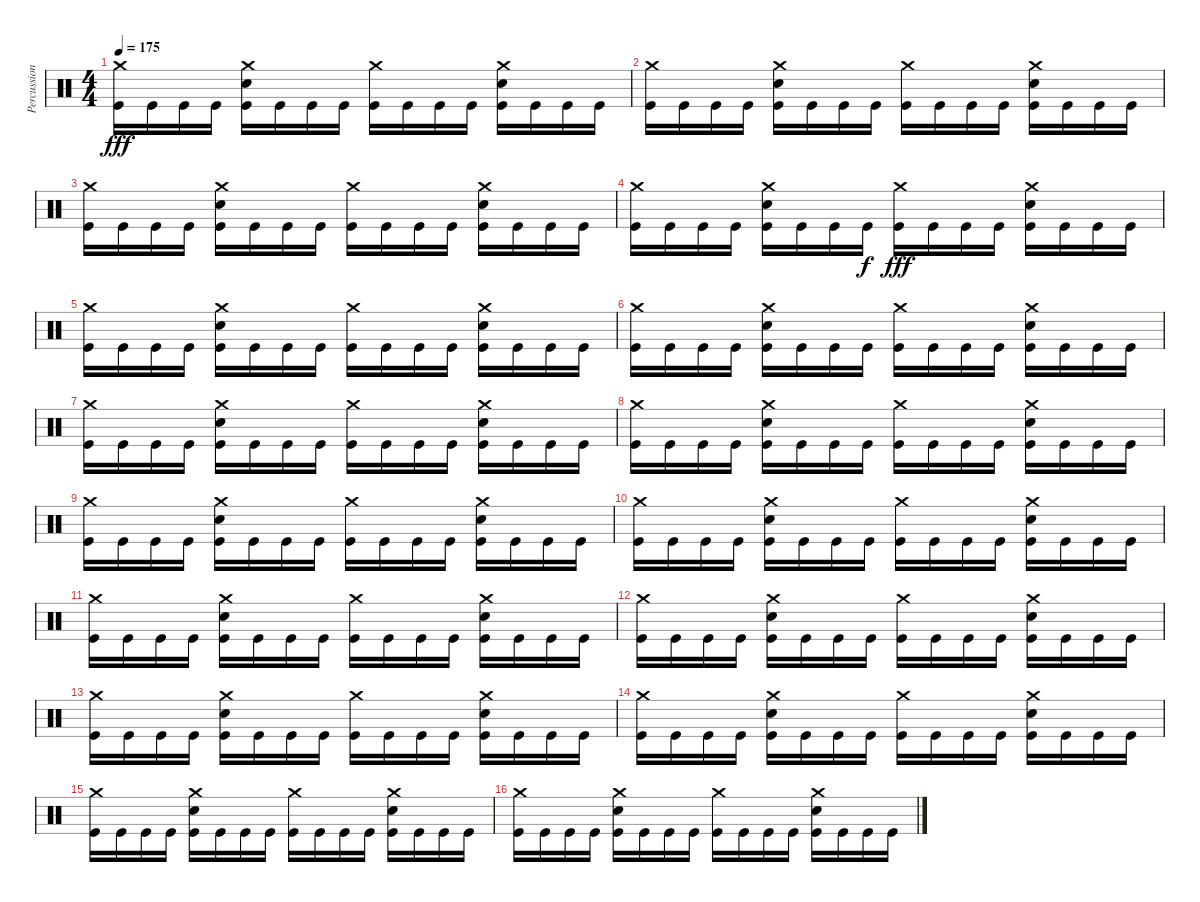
\track ("Percussion" "Percussion") {instrument percussion}
\staff {score}
\articulation defaults
\ts (4 4)
\tempo 175
\clef neutral
\ks c
("Crash medium (hit)" "Kick (hit)").16{dy fff} "Kick (hit)".16 "Kick (hit)".16 "Kick (hit)".16 ("Crash medium (hit)" "Electric Snare (hit)" "Kick (hit)").16 "Kick (hit)".16 "Kick (hit)".16 "Kick (hit)".16 ("Crash medium (hit)" "Kick (hit)").16 "Kick (hit)".16 "Kick (hit)".16 "Kick (hit)".16 ("Crash medium (hit)" "Electric Snare (hit)" "Kick (hit)").16 "Kick (hit)".16 "Kick (hit)".16 "Kick (hit)".16 |
("Crash medium (hit)" "Kick (hit)").16 "Kick (hit)".16 "Kick (hit)".16 "Kick (hit)".16 ("Crash medium (hit)" "Electric Snare (hit)" "Kick (hit)").16 "Kick (hit)".16 "Kick (hit)".16 "Kick (hit)".16 ("Crash medium (hit)" "Kick (hit)").16 "Kick (hit)".16 "Kick (hit)".16 "Kick (hit)".16 ("Crash medium (hit)" "Electric Snare (hit)" "Kick (hit)").16 "Kick (hit)".16 "Kick (hit)".16 "Kick (hit)".16 |
("Crash medium (hit)" "Kick (hit)").16 "Kick (hit)".16 "Kick (hit)".16 "Kick (hit)".16 ("Crash medium (hit)" "Electric Snare (hit)" "Kick (hit)").16 "Kick (hit)".16 "Kick (hit)".16 "Kick (hit)".16 ("Crash medium (hit)" "Kick (hit)").16 "Kick (hit)".16 "Kick (hit)".16 "Kick (hit)".16 ("Crash medium (hit)" "Electric Snare (hit)" "Kick (hit)").16 "Kick (hit)".16 "Kick (hit)".16 "Kick (hit)".16 |
("Crash medium (hit)" "Kick (hit)").16 "Kick (hit)".16 "Kick (hit)".16 "Kick (hit)".16 ("Crash medium (hit)" "Electric Snare (hit)" "Kick (hit)").16 "Kick (hit)".16 "Kick (hit)".16 "Kick (hit)".16{dy f} ("Crash medium (hit)" "Kick (hit)").16{dy fff} "Kick (hit)".16 "Kick (hit)".16 "Kick (hit)".16 ("Crash medium (hit)" "Electric Snare (hit)" "Kick (hit)").16 "Kick (hit)".16 "Kick (hit)".16 "Kick (hit)".16 |
("Crash medium (hit)" "Kick (hit)").16 "Kick (hit)".16 "Kick (hit)".16 "Kick (hit)".16 ("Crash medium (hit)" "Electric Snare (hit)" "Kick (hit)").16 "Kick (hit)".16 "Kick (hit)".16 "Kick (hit)".16 ("Crash medium (hit)" "Kick (hit)").16 "Kick (hit)".16 "Kick (hit)".16 "Kick (hit)".16 ("Crash medium (hit)" "Electric Snare (hit)" "Kick (hit)").16 "Kick (hit)".16 "Kick (hit)".16 "Kick (hit)".16 |
("Crash medium (hit)" "Kick (hit)").16 "Kick (hit)".16 "Kick (hit)".16 "Kick (hit)".16 ("Crash medium (hit)" "Electric Snare (hit)" "Kick (hit)").16 "Kick (hit)".16 "Kick (hit)".16 "Kick (hit)".16 ("Crash medium (hit)" "Kick (hit)").16 "Kick (hit)".16 "Kick (hit)".16 "Kick (hit)".16 ("Crash medium (hit)" "Electric Snare (hit)" "Kick (hit)").16 "Kick (hit)".16 "Kick (hit)".16 "Kick (hit)".16 |
("Crash medium (hit)" "Kick (hit)").16 "Kick (hit)".16 "Kick (hit)".16 "Kick (hit)".16 ("Crash medium (hit)" "Electric Snare (hit)" "Kick (hit)").16 "Kick (hit)".16 "Kick (hit)".16 "Kick (hit)".16 ("Crash medium (hit)" "Kick (hit)").16 "Kick (hit)".16 "Kick (hit)".16 "Kick (hit)".16 ("Crash medium (hit)" "Electric Snare (hit)" "Kick (hit)").16 "Kick (hit)".16 "Kick (hit)".16 "Kick (hit)".16 |
("Crash medium (hit)" "Kick (hit)").16 "Kick (hit)".16 "Kick (hit)".16 "Kick (hit)".16 ("Crash medium (hit)" "Electric Snare (hit)" "Kick (hit)").16 "Kick (hit)".16 "Kick (hit)".16 "Kick (hit)".16 ("Crash medium (hit)" "Kick (hit)").16 "Kick (hit)".16 "Kick (hit)".16 "Kick (hit)".16 ("Crash medium (hit)" "Electric Snare (hit)" "Kick (hit)").16 "Kick (hit)".16 "Kick (hit)".16 "Kick (hit)".16 |
("Crash medium (hit)" "Kick (hit)").16 "Kick (hit)".16 "Kick (hit)".16 "Kick (hit)".16 ("Crash medium (hit)" "Electric Snare (hit)" "Kick (hit)").16 "Kick (hit)".16 "Kick (hit)".16 "Kick (hit)".16 ("Crash medium (hit)" "Kick (hit)").16 "Kick (hit)".16 "Kick (hit)".16 "Kick (hit)".16 ("Crash medium (hit)" "Electric Snare (hit)" "Kick (hit)").16 "Kick (hit)".16 "Kick (hit)".16 "Kick (hit)".16 |
("Crash medium (hit)" "Kick (hit)").16 "Kick (hit)".16 "Kick (hit)".16 "Kick (hit)".16 ("Crash medium (hit)" "Electric Snare (hit)" "Kick (hit)").16 "Kick (hit)".16 "Kick (hit)".16 "Kick (hit)".16 ("Crash medium (hit)" "Kick (hit)").16 "Kick (hit)".16 "Kick (hit)".16 "Kick (hit)".16 ("Crash medium (hit)" "Electric Snare (hit)" "Kick (hit)").16 "Kick (hit)".16 "Kick (hit)".16 "Kick (hit)".16 |
("Crash medium (hit)" "Kick (hit)").16 "Kick (hit)".16 "Kick (hit)".16 "Kick (hit)".16 ("Crash medium (hit)" "Electric Snare (hit)" "Kick (hit)").16 "Kick (hit)".16 "Kick (hit)".16 "Kick (hit)".16 ("Crash medium (hit)" "Kick (hit)").16 "Kick (hit)".16 "Kick (hit)".16 "Kick (hit)".16 ("Crash medium (hit)" "Electric Snare (hit)" "Kick (hit)").16 "Kick (hit)".16 "Kick (hit)".16 "Kick (hit)".16 |
("Crash medium (hit)" "Kick (hit)").16 "Kick (hit)".16 "Kick (hit)".16 "Kick (hit)".16 ("Crash medium (hit)" "Electric Snare (hit)" "Kick (hit)").16 "Kick (hit)".16 "Kick (hit)".16 "Kick (hit)".16 ("Crash medium (hit)" "Kick (hit)").16 "Kick (hit)".16 "Kick (hit)".16 "Kick (hit)".16 ("Crash medium (hit)" "Electric Snare (hit)" "Kick (hit)").16 "Kick (hit)".16 "Kick (hit)".16 "Kick (hit)".16 |
("Crash medium (hit)" "Kick (hit)").16 "Kick (hit)".16 "Kick (hit)".16 "Kick (hit)".16 ("Crash medium (hit)" "Electric Snare (hit)" "Kick (hit)").16 "Kick (hit)".16 "Kick (hit)".16 "Kick (hit)".16 ("Crash medium (hit)" "Kick (hit)").16 "Kick (hit)".16 "Kick (hit)".16 "Kick (hit)".16 ("Crash medium (hit)" "Electric Snare (hit)" "Kick (hit)").16 "Kick (hit)".16 "Kick (hit)".16 "Kick (hit)".16 |
("Crash medium (hit)" "Kick (hit)").16 "Kick (hit)".16 "Kick (hit)".16 "Kick (hit)".16 ("Crash medium (hit)" "Electric Snare (hit)" "Kick (hit)").16 "Kick (hit)".16 "Kick (hit)".16 "Kick (hit)".16 ("Crash medium (hit)" "Kick (hit)").16 "Kick (hit)".16 "Kick (hit)".16 "Kick (hit)".16 ("Crash medium (hit)" "Electric Snare (hit)" "Kick (hit)").16 "Kick (hit)".16 "Kick (hit)".16 "Kick (hit)".16 |
("Crash medium (hit)" "Kick (hit)").16 "Kick (hit)".16 "Kick (hit)".16 "Kick (hit)".16 ("Crash medium (hit)" "Electric Snare (hit)" "Kick (hit)").16 "Kick (hit)".16 "Kick (hit)".16 "Kick (hit)".16 ("Crash medium (hit)" "Kick (hit)").16 "Kick (hit)".16 "Kick (hit)".16 "Kick (hit)".16 ("Crash medium (hit)" "Electric Snare (hit)" "Kick (hit)").16 "Kick (hit)".16 "Kick (hit)".16 "Kick (hit)".16 |
("Crash medium (hit)" "Kick (hit)").16 "Kick (hit)".16 "Kick (hit)".16 "Kick (hit)".16 ("Crash medium (hit)" "Electric Snare (hit)" "Kick (hit)").16 "Kick (hit)".16 "Kick (hit)".16 "Kick (hit)".16 ("Crash medium (hit)" "Kick (hit)").16 "Kick (hit)".16 "Kick (hit)".16 "Kick (hit)".16 ("Crash medium (hit)" "Electric Snare (hit)" "Kick (hit)").16 "Kick (hit)".16 "Kick (hit)".16 "Kick (hit)".16
